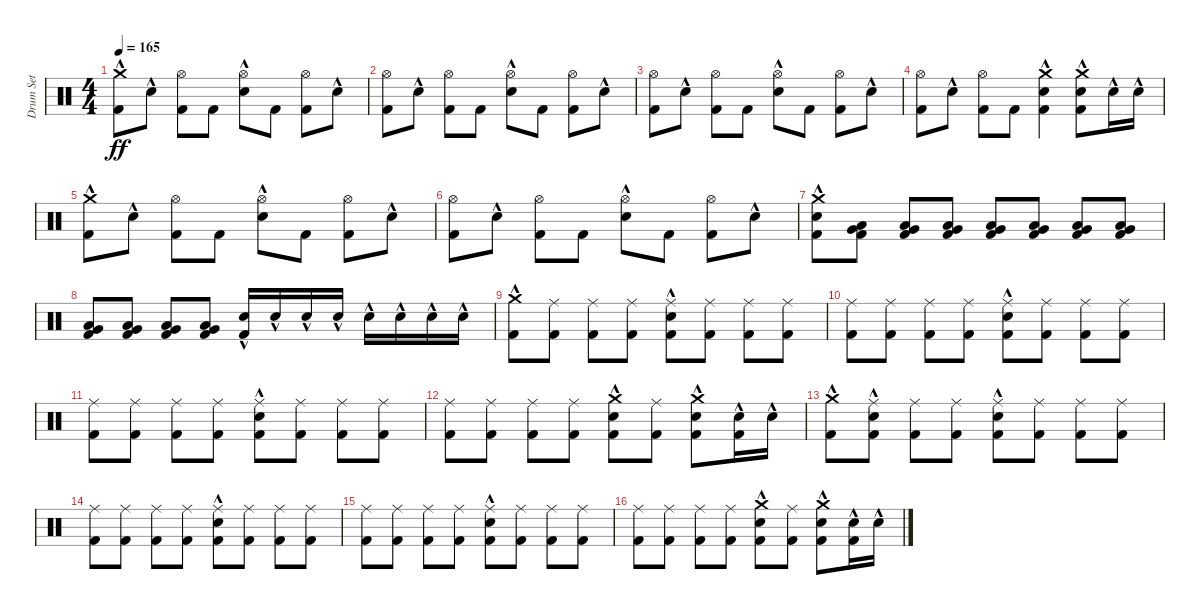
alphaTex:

\track ("Drum Set" "Drum Set") {instrument percussion}
\staff {score}
\articulation defaults
\ts (4 4)
\tempo 165
\clef neutral
\ks c
("Crash medium (hit)"{hac} "Kick (hit) 2").8{dy ff} "Snare (hit) 2"{hac}.8 ("Hi-Hat (open)" "Kick (hit) 2").8 "Kick (hit) 2".8 ("Hi-Hat (open)" "Snare (hit) 2"{hac}).8 "Kick (hit) 2".8 ("Hi-Hat (open)" "Kick (hit) 2").8 "Snare (hit) 2"{hac}.8 |
("Hi-Hat (open)" "Kick (hit) 2").8 "Snare (hit) 2"{hac}.8 ("Hi-Hat (open)" "Kick (hit) 2").8 "Kick (hit) 2".8 ("Hi-Hat (open)" "Snare (hit) 2"{hac}).8 "Kick (hit) 2".8 ("Hi-Hat (open)" "Kick (hit) 2").8 "Snare (hit) 2"{hac}.8 |
("Hi-Hat (open)" "Kick (hit) 2").8 "Snare (hit) 2"{hac}.8 ("Hi-Hat (open)" "Kick (hit) 2").8 "Kick (hit) 2".8 ("Hi-Hat (open)" "Snare (hit) 2"{hac}).8 "Kick (hit) 2".8 ("Hi-Hat (open)" "Kick (hit) 2").8 "Snare (hit) 2"{hac}.8 |
("Hi-Hat (open)" "Kick (hit) 2").8 "Snare (hit) 2"{hac}.8 ("Hi-Hat (open)" "Kick (hit) 2").8 "Kick (hit) 2".8 ("Crash medium (hit)" "Snare (hit) 2"{hac} "Kick (hit) 2").4 ("Crash medium (hit)" "Snare (hit) 2"{hac} "Kick (hit) 2").8 "Snare (hit) 2"{hac}.16 "Snare (hit) 2"{hac}.16 |
("Crash medium (hit)"{hac} "Kick (hit) 2").8 "Snare (hit) 2"{hac}.8 ("Hi-Hat (open)" "Kick (hit) 2").8 "Kick (hit) 2".8 ("Hi-Hat (open)" "Snare (hit) 2"{hac}).8 "Kick (hit) 2".8 ("Hi-Hat (open)" "Kick (hit) 2").8 "Snare (hit) 2"{hac}.8 |
("Hi-Hat (open)" "Kick (hit) 2").8 "Snare (hit) 2"{hac}.8 ("Hi-Hat (open)" "Kick (hit) 2").8 "Kick (hit) 2".8 ("Hi-Hat (open)" "Snare (hit) 2"{hac}).8 "Kick (hit) 2".8 ("Hi-Hat (open)" "Kick (hit) 2").8 "Snare (hit) 2"{hac}.8 |
("Crash medium (hit)" "Snare (hit) 2"{hac} "Kick (hit) 2").8 ("Very Low Tom (hit)" "Low Floor Tom (hit)" "Kick (hit) 2").8 ("Very Low Tom (hit)" "Low Floor Tom (hit)" "Kick (hit) 2").8 ("Very Low Tom (hit)" "Low Floor Tom (hit)" "Kick (hit) 2").8 ("Very Low Tom (hit)" "Low Floor Tom (hit)" "Kick (hit) 2").8 ("Very Low Tom (hit)" "Low Floor Tom (hit)" "Kick (hit) 2").8 ("Very Low Tom (hit)" "Low Floor Tom (hit)" "Kick (hit) 2").8 ("Very Low Tom (hit)" "Low Floor Tom (hit)" "Kick (hit) 2").8 |
("Very Low Tom (hit)" "Low Floor Tom (hit)" "Kick (hit) 2").8 ("Very Low Tom (hit)" "Low Floor Tom (hit)" "Kick (hit) 2").8 ("Very Low Tom (hit)" "Low Floor Tom (hit)" "Kick (hit) 2").8 ("Very Low Tom (hit)" "Low Floor Tom (hit)" "Kick (hit) 2").8 ("Snare (hit) 2"{hac} "Kick (hit) 2").16 "Snare (hit) 2"{hac}.16 "Snare (hit) 2"{hac}.16 "Snare (hit) 2"{hac}.16 "Snare (hit) 2"{hac}.16 "Snare (hit) 2"{hac}.16 "Snare (hit) 2"{hac}.16 "Snare (hit) 2"{hac}.16 |
("Crash medium (hit)"{hac} "Kick (hit) 2").8 ("Ride (middle)" "Kick (hit) 2").8 ("Ride (middle)" "Kick (hit) 2").8 ("Ride (middle)" "Kick (hit) 2").8 ("Ride (middle)" "Snare (hit) 2"{hac} "Kick (hit) 2").8 ("Ride (middle)" "Kick (hit) 2").8 ("Ride (middle)" "Kick (hit) 2").8 ("Ride (middle)" "Kick (hit) 2").8 |
("Ride (middle)" "Kick (hit) 2").8 ("Ride (middle)" "Kick (hit) 2").8 ("Ride (middle)" "Kick (hit) 2").8 ("Ride (middle)" "Kick (hit) 2").8 ("Ride (middle)" "Snare (hit) 2"{hac} "Kick (hit) 2").8 ("Ride (middle)" "Kick (hit) 2").8 ("Ride (middle)" "Kick (hit) 2").8 ("Ride (middle)" "Kick (hit) 2").8 |
("Ride (middle)" "Kick (hit) 2").8 ("Ride (middle)" "Kick (hit) 2").8 ("Ride (middle)" "Kick (hit) 2").8 ("Ride (middle)" "Kick (hit) 2").8 ("Ride (middle)" "Snare (hit) 2"{hac} "Kick (hit) 2").8 ("Ride (middle)" "Kick (hit) 2").8 ("Ride (middle)" "Kick (hit) 2").8 ("Ride (middle)" "Kick (hit) 2").8 |
("Ride (middle)" "Kick (hit) 2").8 ("Ride (middle)" "Kick (hit) 2").8 ("Ride (middle)" "Kick (hit) 2").8 ("Ride (middle)" "Kick (hit) 2").8 ("Crash medium (hit)" "Snare (hit) 2"{hac} "Kick (hit) 2").8 ("Ride (middle)" "Kick (hit) 2").8 ("Crash medium (hit)" "Snare (hit) 2"{hac} "Kick (hit) 2").8 ("Snare (hit) 2"{hac} "Kick (hit) 2").16 "Snare (hit) 2"{hac}.16 |
("Crash medium (hit)"{hac} "Kick (hit) 2").8 ("Ride (middle)" "Snare (hit) 2"{hac} "Kick (hit) 2").8 ("Ride (middle)" "Kick (hit) 2").8 ("Ride (middle)" "Kick (hit) 2").8 ("Ride (middle)" "Snare (hit) 2"{hac} "Kick (hit) 2").8 ("Ride (middle)" "Kick (hit) 2").8 ("Ride (middle)" "Kick (hit) 2").8 ("Ride (middle)" "Kick (hit) 2").8 |
("Ride (middle)" "Kick (hit) 2").8 ("Ride (middle)" "Kick (hit) 2").8 ("Ride (middle)" "Kick (hit) 2").8 ("Ride (middle)" "Kick (hit) 2").8 ("Ride (middle)" "Snare (hit) 2"{hac} "Kick (hit) 2").8 ("Ride (middle)" "Kick (hit) 2").8 ("Ride (middle)" "Kick (hit) 2").8 ("Ride (middle)" "Kick (hit) 2").8 |
("Ride (middle)" "Kick (hit) 2").8 ("Ride (middle)" "Kick (hit) 2").8 ("Ride (middle)" "Kick (hit) 2").8 ("Ride (middle)" "Kick (hit) 2").8 ("Ride (middle)" "Snare (hit) 2"{hac} "Kick (hit) 2").8 ("Ride (middle)" "Kick (hit) 2").8 ("Ride (middle)" "Kick (hit) 2").8 ("Ride (middle)" "Kick (hit) 2").8 |
("Ride (middle)" "Kick (hit) 2").8 ("Ride (middle)" "Kick (hit) 2").8 ("Ride (middle)" "Kick (hit) 2").8 ("Ride (middle)" "Kick (hit) 2").8 ("Crash medium (hit)" "Snare (hit) 2"{hac} "Kick (hit) 2").8 ("Ride (middle)" "Kick (hit) 2").8 ("Crash medium (hit)" "Snare (hit) 2"{hac} "Kick (hit) 2").8 ("Snare (hit) 2"{hac} "Kick (hit) 2").16 "Snare (hit) 2"{hac}.16
